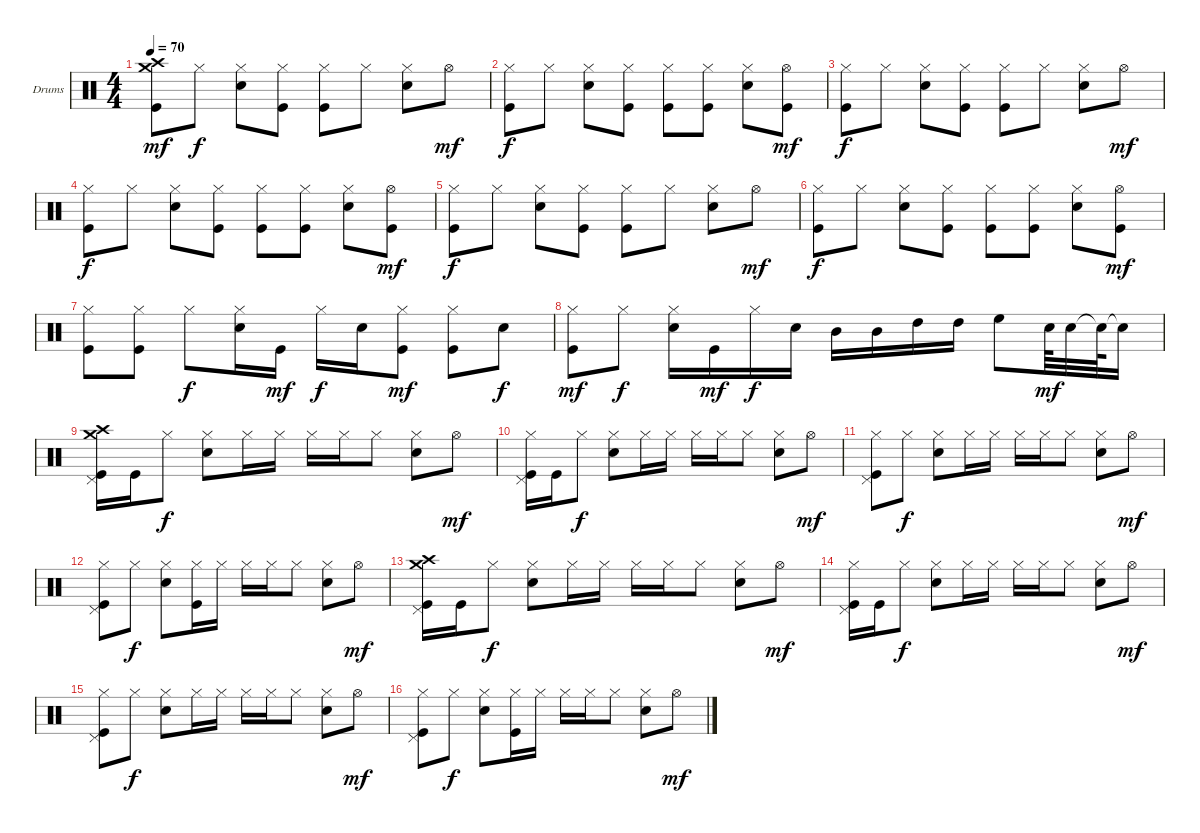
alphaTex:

\defaultSystemsLayout 4
\bracketExtendMode groupsimilarinstruments
\firstSystemTrackNameOrientation horizontal
\otherSystemsTrackNameOrientation horizontal
\track ("Drumkit" "Drums") {instrument percussion}
\staff {score}
\articulation defaults
\ts (4 4)
\tempo 70
\clef neutral
\ks c
("Kick (hit)" "Crash medium (hit)" "Crash high (hit)").8{dy mf} "Hi-Hat (closed)".8{dy f} ("Snare (hit) 2" "Hi-Hat (closed)").8 ("Kick (hit)" "Hi-Hat (closed)").8 ("Kick (hit)" "Hi-Hat (closed)").8 "Hi-Hat (closed)".8 ("Snare (hit) 2" "Hi-Hat (closed)").8 "Hi-Hat (open)".8{dy mf} |
("Kick (hit)" "Hi-Hat (closed)").8{dy f} "Hi-Hat (closed)".8 ("Snare (hit) 2" "Hi-Hat (closed)").8 ("Kick (hit)" "Hi-Hat (closed)").8 ("Kick (hit)" "Hi-Hat (closed)").8 ("Kick (hit)" "Hi-Hat (closed)").8 ("Snare (hit) 2" "Hi-Hat (closed)").8 ("Hi-Hat (open)" "Kick (hit)").8{dy mf} |
("Kick (hit)" "Hi-Hat (closed)").8{dy f} "Hi-Hat (closed)".8 ("Snare (hit) 2" "Hi-Hat (closed)").8 ("Kick (hit)" "Hi-Hat (closed)").8 ("Kick (hit)" "Hi-Hat (closed)").8 "Hi-Hat (closed)".8 ("Snare (hit) 2" "Hi-Hat (closed)").8 "Hi-Hat (open)".8{dy mf} |
("Kick (hit)" "Hi-Hat (closed)").8{dy f} "Hi-Hat (closed)".8 ("Snare (hit) 2" "Hi-Hat (closed)").8 ("Kick (hit)" "Hi-Hat (closed)").8 ("Kick (hit)" "Hi-Hat (closed)").8 ("Kick (hit)" "Hi-Hat (closed)").8 ("Snare (hit) 2" "Hi-Hat (closed)").8 ("Hi-Hat (open)" "Kick (hit)").8{dy mf} |
("Kick (hit)" "Hi-Hat (closed)").8{dy f} "Hi-Hat (closed)".8 ("Snare (hit) 2" "Hi-Hat (closed)").8 ("Kick (hit)" "Hi-Hat (closed)").8 ("Kick (hit)" "Hi-Hat (closed)").8 "Hi-Hat (closed)".8 ("Snare (hit) 2" "Hi-Hat (closed)").8 "Hi-Hat (open)".8{dy mf} |
("Kick (hit)" "Hi-Hat (closed)").8{dy f} "Hi-Hat (closed)".8 ("Snare (hit) 2" "Hi-Hat (closed)").8 ("Kick (hit)" "Hi-Hat (closed)").8 ("Kick (hit)" "Hi-Hat (closed)").8 ("Kick (hit)" "Hi-Hat (closed)").8 ("Snare (hit) 2" "Hi-Hat (closed)").8 ("Hi-Hat (open)" "Kick (hit)").8{dy mf} |
("Kick (hit)" "Hi-Hat (closed)").8 ("Kick (hit)" "Hi-Hat (closed)").8 "Hi-Hat (closed)".8{dy f} ("Snare (hit) 2" "Hi-Hat (closed)").16 "Kick (hit)".16{dy mf} "Hi-Hat (closed)".16{dy f} "Snare (hit) 2".16 ("Kick (hit)" "Hi-Hat (closed)").8{dy mf} ("Kick (hit)" "Hi-Hat (closed)").8 "Snare (hit) 2".8{dy f} |
("Kick (hit)" "Hi-Hat (closed)").8{dy mf} "Hi-Hat (closed)".8{dy f} ("Snare (hit) 2" "Hi-Hat (closed)").16 "Kick (hit)".16{dy mf} "Hi-Hat (closed)".16{dy f} "Snare (hit) 2".16 "Mid Tom (hit)".16 "Mid Tom (hit)".16 "High Tom (hit)".16 "High Tom (hit)".16 "High Floor Tom (hit)".8 "Snare (hit) 2".64{dy mf} "Snare (hit) 2".32 "Snare (hit) 2"{t}.64 "Snare (hit) 2"{t}.16 |
("Pedal Hi-Hat (hit)" "Kick (hit)" "Crash medium (hit)" "Crash high (hit)").16 "Kick (hit)".16 "Hi-Hat (closed)".8{dy f} ("Snare (hit) 2" "Hi-Hat (closed)").8 "Hi-Hat (closed)".16 "Hi-Hat (closed)".16 "Hi-Hat (closed)".16 "Hi-Hat (closed)".16 "Hi-Hat (closed)".8 ("Snare (hit) 2" "Hi-Hat (closed)").8 "Hi-Hat (open)".8{dy mf} |
("Pedal Hi-Hat (hit)" "Kick (hit)" "Hi-Hat (closed)").16 "Kick (hit)".16 "Hi-Hat (closed)".8{dy f} ("Snare (hit) 2" "Hi-Hat (closed)").8 "Hi-Hat (closed)".16 "Hi-Hat (closed)".16 "Hi-Hat (closed)".16 "Hi-Hat (closed)".16 "Hi-Hat (closed)".8 ("Snare (hit) 2" "Hi-Hat (closed)").8 "Hi-Hat (open)".8{dy mf} |
("Pedal Hi-Hat (hit)" "Kick (hit)" "Hi-Hat (closed)").8 "Hi-Hat (closed)".8{dy f} ("Snare (hit) 2" "Hi-Hat (closed)").8 "Hi-Hat (closed)".16 "Hi-Hat (closed)".16 "Hi-Hat (closed)".16 "Hi-Hat (closed)".16 "Hi-Hat (closed)".8 ("Snare (hit) 2" "Hi-Hat (closed)").8 "Hi-Hat (open)".8{dy mf} |
("Pedal Hi-Hat (hit)" "Kick (hit)" "Hi-Hat (closed)").8 "Hi-Hat (closed)".8{dy f} ("Snare (hit) 2" "Hi-Hat (closed)").8 ("Kick (hit)" "Hi-Hat (closed)").16 "Hi-Hat (closed)".16 "Hi-Hat (closed)".16 "Hi-Hat (closed)".16 "Hi-Hat (closed)".8 ("Snare (hit) 2" "Hi-Hat (closed)").8 "Hi-Hat (open)".8{dy mf} |
("Pedal Hi-Hat (hit)" "Kick (hit)" "Crash medium (hit)" "Crash high (hit)").16 "Kick (hit)".16 "Hi-Hat (closed)".8{dy f} ("Snare (hit) 2" "Hi-Hat (closed)").8 "Hi-Hat (closed)".16 "Hi-Hat (closed)".16 "Hi-Hat (closed)".16 "Hi-Hat (closed)".16 "Hi-Hat (closed)".8 ("Snare (hit) 2" "Hi-Hat (closed)").8 "Hi-Hat (open)".8{dy mf} |
("Pedal Hi-Hat (hit)" "Kick (hit)" "Hi-Hat (closed)").16 "Kick (hit)".16 "Hi-Hat (closed)".8{dy f} ("Snare (hit) 2" "Hi-Hat (closed)").8 "Hi-Hat (closed)".16 "Hi-Hat (closed)".16 "Hi-Hat (closed)".16 "Hi-Hat (closed)".16 "Hi-Hat (closed)".8 ("Snare (hit) 2" "Hi-Hat (closed)").8 "Hi-Hat (open)".8{dy mf} |
("Pedal Hi-Hat (hit)" "Kick (hit)" "Hi-Hat (closed)").8 "Hi-Hat (closed)".8{dy f} ("Snare (hit) 2" "Hi-Hat (closed)").8 "Hi-Hat (closed)".16 "Hi-Hat (closed)".16 "Hi-Hat (closed)".16 "Hi-Hat (closed)".16 "Hi-Hat (closed)".8 ("Snare (hit) 2" "Hi-Hat (closed)").8 "Hi-Hat (open)".8{dy mf} |
("Pedal Hi-Hat (hit)" "Kick (hit)" "Hi-Hat (closed)").8 "Hi-Hat (closed)".8{dy f} ("Snare (hit) 2" "Hi-Hat (closed)").8 ("Kick (hit)" "Hi-Hat (closed)").16 "Hi-Hat (closed)".16 "Hi-Hat (closed)".16 "Hi-Hat (closed)".16 "Hi-Hat (closed)".8 ("Snare (hit) 2" "Hi-Hat (closed)").8 "Hi-Hat (open)".8{dy mf}
